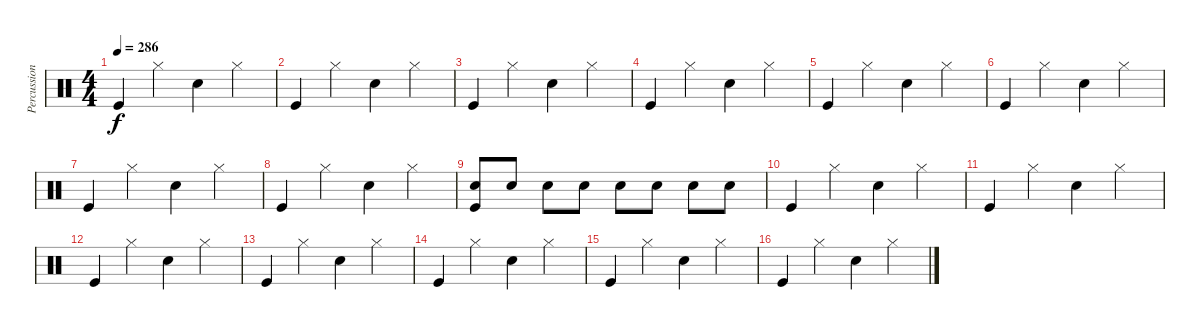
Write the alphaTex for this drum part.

\track ("Percussions" "Percussion") {instrument percussion}
\staff {score}
\articulation defaults
\ts (4 4)
\tempo 286
\clef neutral
\ks c "Kick (hit)".4{dy f} "Hi-Hat (closed)".4 "Electric Snare (hit)".4 "Hi-Hat (closed)".4
|
"Kick (hit)".4 "Hi-Hat (closed)".4 "Electric Snare (hit)".4 "Hi-Hat (closed)".4 |
"Kick (hit)".4 "Hi-Hat (closed)".4 "Electric Snare (hit)".4 "Hi-Hat (closed)".4 |
"Kick (hit)".4 "Hi-Hat (closed)".4 "Electric Snare (hit)".4 "Hi-Hat (closed)".4 |
"Kick (hit)".4 "Hi-Hat (closed)".4 "Electric Snare (hit)".4 "Hi-Hat (closed)".4 |
"Kick (hit)".4 "Hi-Hat (closed)".4 "Electric Snare (hit)".4 "Hi-Hat (closed)".4 |
"Kick (hit)".4 "Hi-Hat (closed)".4 "Electric Snare (hit)".4 "Hi-Hat (closed)".4 |
"Kick (hit)".4 "Hi-Hat (closed)".4 "Electric Snare (hit)".4 "Hi-Hat (closed)".4 |
("Electric Snare (hit)" "Kick (hit)").8 "Electric Snare (hit)".8 "Electric Snare (hit)".8 "Electric Snare (hit)".8 "Electric Snare (hit)".8 "Electric Snare (hit)".8 "Electric Snare (hit)".8 "Electric Snare (hit)".8 |
"Kick (hit)".4 "Hi-Hat (closed)".4 "Electric Snare (hit)".4 "Hi-Hat (closed)".4 |
"Kick (hit)".4 "Hi-Hat (closed)".4 "Electric Snare (hit)".4 "Hi-Hat (closed)".4 |
"Kick (hit)".4 "Hi-Hat (closed)".4 "Electric Snare (hit)".4 "Hi-Hat (closed)".4 |
"Kick (hit)".4 "Hi-Hat (closed)".4 "Electric Snare (hit)".4 "Hi-Hat (closed)".4 |
"Kick (hit)".4 "Hi-Hat (closed)".4 "Electric Snare (hit)".4 "Hi-Hat (closed)".4 |
"Kick (hit)".4 "Hi-Hat (closed)".4 "Electric Snare (hit)".4 "Hi-Hat (closed)".4 |
"Kick (hit)".4 "Hi-Hat (closed)".4 "Electric Snare (hit)".4 "Hi-Hat (closed)".4
